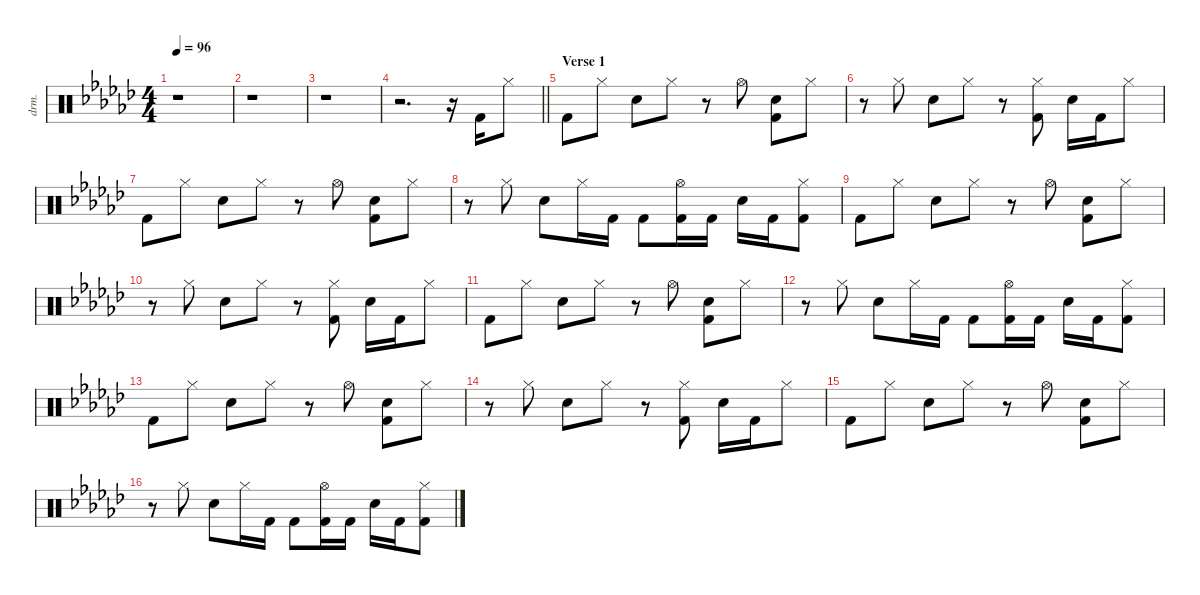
\defaultSystemsLayout 4
\hideDynamics
\bracketExtendMode nobrackets
\otherSystemsTrackNameOrientation horizontal
\track ("Percussion" "drm.") {instrument percussion}
\staff {score}
\articulation defaults
\ts (4 4)
\beaming (8 2 2 2 2)
\tempo 96
\clef neutral
\ks gb
r.1{dy f beam Down} |
r.1{beam Down} |
r.1{beam Down} |
\barLineRight lightlight
r.2{d beam Down} r.16{beam Down} "Kick (hit) 2"{acc forcenatural}.16{beam Down} "Hi-Hat (closed)"{acc forcenatural}.8{beam Down} |
\section ("" "Verse 1")
"Kick (hit) 2"{acc forcenatural}.8{beam Down} "Hi-Hat (closed)"{acc forcenatural}.8{beam Down} "Snare (hit) 2"{acc forcenatural}.8{beam Down} "Hi-Hat (closed)"{acc forcenatural}.8{beam Down} r.8{beam Down} "Hi-Hat (open)"{acc forcenatural}.8{beam Down} ("Snare (hit) 2"{acc forcenatural} "Kick (hit) 2"{acc forcenatural}).8{beam Down} "Hi-Hat (closed)"{acc forcenatural}.8{beam Down} |
r.8{beam Down} "Hi-Hat (closed)"{acc forcenatural}.8{beam Down} "Snare (hit) 2"{acc forcenatural}.8{beam Down} "Hi-Hat (closed)"{acc forcenatural}.8{beam Down} r.8{beam Down} ("Hi-Hat (closed)"{acc forcenatural} "Kick (hit) 2"{acc forcenatural}).8{beam Down} "Snare (hit) 2"{acc forcenatural}.16{beam Down} "Kick (hit) 2"{acc forcenatural}.16{beam Down} "Hi-Hat (closed)"{acc forcenatural}.8{beam Down} |
"Kick (hit) 2"{acc forcenatural}.8{beam Down} "Hi-Hat (closed)"{acc forcenatural}.8{beam Down} "Snare (hit) 2"{acc forcenatural}.8{beam Down} "Hi-Hat (closed)"{acc forcenatural}.8{beam Down} r.8{beam Down} "Hi-Hat (open)"{acc forcenatural}.8{beam Down} ("Snare (hit) 2"{acc forcenatural} "Kick (hit) 2"{acc forcenatural}).8{beam Down} "Hi-Hat (closed)"{acc forcenatural}.8{beam Down} |
r.8{beam Down} "Hi-Hat (closed)"{acc forcenatural}.8{beam Down} "Snare (hit) 2"{acc forcenatural}.8{beam Down} "Hi-Hat (closed)"{acc forcenatural}.16{beam Down} "Kick (hit) 2"{acc forcenatural}.16{beam Down} "Kick (hit) 2"{acc forcenatural}.8{beam Down} ("Hi-Hat (open)"{acc forcenatural} "Kick (hit) 2"{acc forcenatural}).16{beam Down} "Kick (hit) 2"{acc forcenatural}.16{beam Down} "Snare (hit) 2"{acc forcenatural}.16{beam Down} "Kick (hit) 2"{acc forcenatural}.16{beam Down} ("Hi-Hat (closed)"{acc forcenatural} "Kick (hit) 2"{acc forcenatural}).8{beam Down} |
"Kick (hit) 2"{acc forcenatural}.8{beam Down} "Hi-Hat (closed)"{acc forcenatural}.8{beam Down} "Snare (hit) 2"{acc forcenatural}.8{beam Down} "Hi-Hat (closed)"{acc forcenatural}.8{beam Down} r.8{beam Down} "Hi-Hat (open)"{acc forcenatural}.8{beam Down} ("Snare (hit) 2"{acc forcenatural} "Kick (hit) 2"{acc forcenatural}).8{beam Down} "Hi-Hat (closed)"{acc forcenatural}.8{beam Down} |
r.8{beam Down} "Hi-Hat (closed)"{acc forcenatural}.8{beam Down} "Snare (hit) 2"{acc forcenatural}.8{beam Down} "Hi-Hat (closed)"{acc forcenatural}.8{beam Down} r.8{beam Down} ("Hi-Hat (closed)"{acc forcenatural} "Kick (hit) 2"{acc forcenatural}).8{beam Down} "Snare (hit) 2"{acc forcenatural}.16{beam Down} "Kick (hit) 2"{acc forcenatural}.16{beam Down} "Hi-Hat (closed)"{acc forcenatural}.8{beam Down} |
"Kick (hit) 2"{acc forcenatural}.8{beam Down} "Hi-Hat (closed)"{acc forcenatural}.8{beam Down} "Snare (hit) 2"{acc forcenatural}.8{beam Down} "Hi-Hat (closed)"{acc forcenatural}.8{beam Down} r.8{beam Down} "Hi-Hat (open)"{acc forcenatural}.8{beam Down} ("Snare (hit) 2"{acc forcenatural} "Kick (hit) 2"{acc forcenatural}).8{beam Down} "Hi-Hat (closed)"{acc forcenatural}.8{beam Down} |
r.8{beam Down} "Hi-Hat (closed)"{acc forcenatural}.8{beam Down} "Snare (hit) 2"{acc forcenatural}.8{beam Down} "Hi-Hat (closed)"{acc forcenatural}.16{beam Down} "Kick (hit) 2"{acc forcenatural}.16{beam Down} "Kick (hit) 2"{acc forcenatural}.8{beam Down} ("Hi-Hat (open)"{acc forcenatural} "Kick (hit) 2"{acc forcenatural}).16{beam Down} "Kick (hit) 2"{acc forcenatural}.16{beam Down} "Snare (hit) 2"{acc forcenatural}.16{beam Down} "Kick (hit) 2"{acc forcenatural}.16{beam Down} ("Hi-Hat (closed)"{acc forcenatural} "Kick (hit) 2"{acc forcenatural}).8{beam Down} |
"Kick (hit) 2"{acc forcenatural}.8{beam Down} "Hi-Hat (closed)"{acc forcenatural}.8{beam Down} "Snare (hit) 2"{acc forcenatural}.8{beam Down} "Hi-Hat (closed)"{acc forcenatural}.8{beam Down} r.8{beam Down} "Hi-Hat (open)"{acc forcenatural}.8{beam Down} ("Snare (hit) 2"{acc forcenatural} "Kick (hit) 2"{acc forcenatural}).8{beam Down} "Hi-Hat (closed)"{acc forcenatural}.8{beam Down} |
r.8{beam Down} "Hi-Hat (closed)"{acc forcenatural}.8{beam Down} "Snare (hit) 2"{acc forcenatural}.8{beam Down} "Hi-Hat (closed)"{acc forcenatural}.8{beam Down} r.8{beam Down} ("Hi-Hat (closed)"{acc forcenatural} "Kick (hit) 2"{acc forcenatural}).8{beam Down} "Snare (hit) 2"{acc forcenatural}.16{beam Down} "Kick (hit) 2"{acc forcenatural}.16{beam Down} "Hi-Hat (closed)"{acc forcenatural}.8{beam Down} |
"Kick (hit) 2"{acc forcenatural}.8{beam Down} "Hi-Hat (closed)"{acc forcenatural}.8{beam Down} "Snare (hit) 2"{acc forcenatural}.8{beam Down} "Hi-Hat (closed)"{acc forcenatural}.8{beam Down} r.8{beam Down} "Hi-Hat (open)"{acc forcenatural}.8{beam Down} ("Snare (hit) 2"{acc forcenatural} "Kick (hit) 2"{acc forcenatural}).8{beam Down} "Hi-Hat (closed)"{acc forcenatural}.8{beam Down} |
r.8{beam Down} "Hi-Hat (closed)"{acc forcenatural}.8{beam Down} "Snare (hit) 2"{acc forcenatural}.8{beam Down} "Hi-Hat (closed)"{acc forcenatural}.16{beam Down} "Kick (hit) 2"{acc forcenatural}.16{beam Down} "Kick (hit) 2"{acc forcenatural}.8{beam Down} ("Hi-Hat (open)"{acc forcenatural} "Kick (hit) 2"{acc forcenatural}).16{beam Down} "Kick (hit) 2"{acc forcenatural}.16{beam Down} "Snare (hit) 2"{acc forcenatural}.16{beam Down} "Kick (hit) 2"{acc forcenatural}.16{beam Down} ("Hi-Hat (closed)"{acc forcenatural} "Kick (hit) 2"{acc forcenatural}).8{beam Down}
